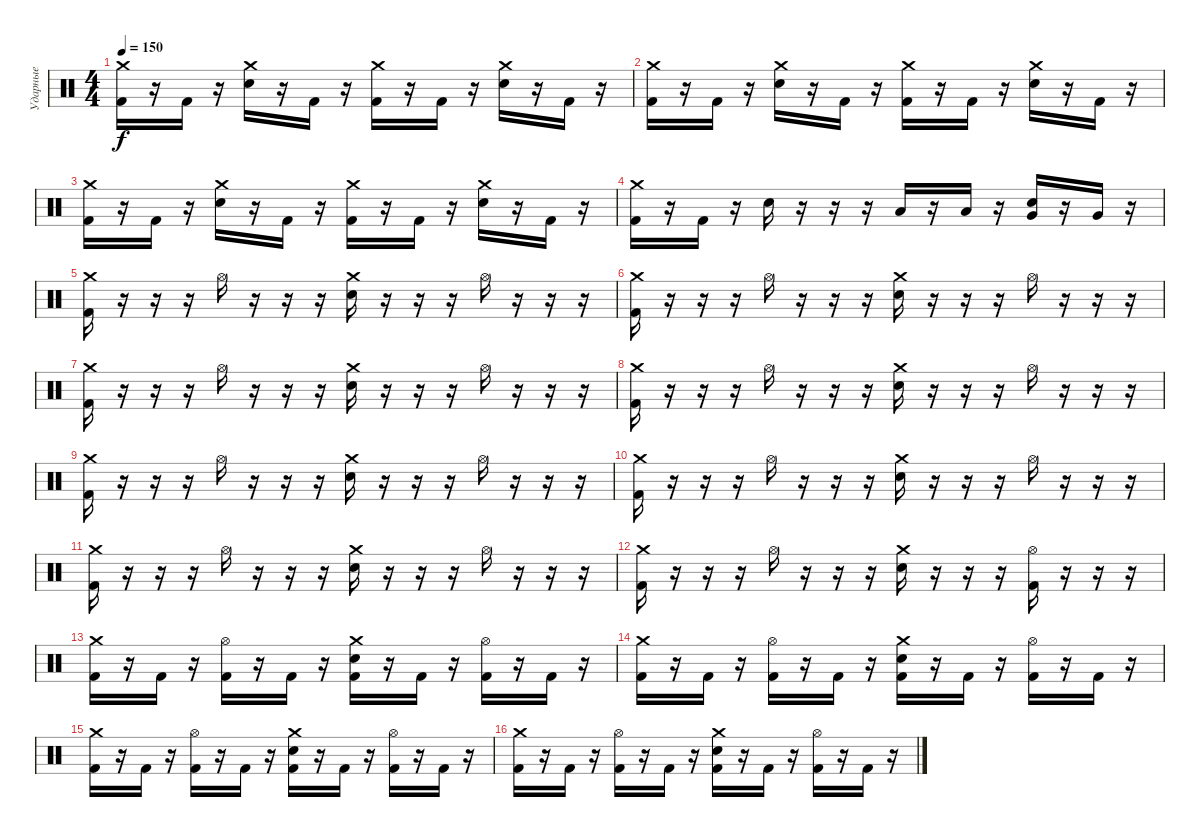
\track ("Ударные" "Ударные") {instrument percussion}
\staff {score}
\articulation defaults
\ts (4 4)
\tempo 150
\clef neutral
\ks c
("Crash medium (hit)" "Kick (hit) 2").16{dy f} r.16 "Kick (hit) 2".16 r.16 ("Crash medium (hit)" "Electric Snare (hit)").16 r.16 "Kick (hit) 2".16 r.16 ("Crash medium (hit)" "Kick (hit) 2").16 r.16 "Kick (hit) 2".16 r.16 ("Crash medium (hit)" "Electric Snare (hit)").16 r.16 "Kick (hit) 2".16 r.16 |
("Crash medium (hit)" "Kick (hit) 2").16 r.16 "Kick (hit) 2".16 r.16 ("Crash medium (hit)" "Electric Snare (hit)").16 r.16 "Kick (hit) 2".16 r.16 ("Crash medium (hit)" "Kick (hit) 2").16 r.16 "Kick (hit) 2".16 r.16 ("Crash medium (hit)" "Electric Snare (hit)").16 r.16 "Kick (hit) 2".16 r.16 |
("Crash medium (hit)" "Kick (hit) 2").16 r.16 "Kick (hit) 2".16 r.16 ("Crash medium (hit)" "Electric Snare (hit)").16 r.16 "Kick (hit) 2".16 r.16 ("Crash medium (hit)" "Kick (hit) 2").16 r.16 "Kick (hit) 2".16 r.16 ("Crash medium (hit)" "Electric Snare (hit)").16 r.16 "Kick (hit) 2".16 r.16 |
("Crash medium (hit)" "Kick (hit) 2").16 r.16 "Kick (hit) 2".16 r.16 "Electric Snare (hit)".16 r.16 r.16 r.16 "Low Tom (hit)".16 r.16 "Low Tom (hit)".16 r.16 ("Very Low Tom (hit)" "Electric Snare (hit)").16 r.16 "Very Low Tom (hit)".16 r.16 |
("Crash medium (hit)" "Kick (hit) 2").16 r.16 r.16 r.16 "Hi-Hat (open)".16 r.16 r.16 r.16 ("Crash medium (hit)" "Electric Snare (hit)").16 r.16 r.16 r.16 "Hi-Hat (open)".16 r.16 r.16 r.16 |
("Crash medium (hit)" "Kick (hit) 2").16 r.16 r.16 r.16 "Hi-Hat (open)".16 r.16 r.16 r.16 ("Crash medium (hit)" "Electric Snare (hit)").16 r.16 r.16 r.16 "Hi-Hat (open)".16 r.16 r.16 r.16 |
("Crash medium (hit)" "Kick (hit) 2").16 r.16 r.16 r.16 "Hi-Hat (open)".16 r.16 r.16 r.16 ("Crash medium (hit)" "Electric Snare (hit)").16 r.16 r.16 r.16 "Hi-Hat (open)".16 r.16 r.16 r.16 |
("Crash medium (hit)" "Kick (hit) 2").16 r.16 r.16 r.16 "Hi-Hat (open)".16 r.16 r.16 r.16 ("Crash medium (hit)" "Electric Snare (hit)").16 r.16 r.16 r.16 "Hi-Hat (open)".16 r.16 r.16 r.16 |
("Crash medium (hit)" "Kick (hit) 2").16 r.16 r.16 r.16 "Hi-Hat (open)".16 r.16 r.16 r.16 ("Crash medium (hit)" "Electric Snare (hit)").16 r.16 r.16 r.16 "Hi-Hat (open)".16 r.16 r.16 r.16 |
("Crash medium (hit)" "Kick (hit) 2").16 r.16 r.16 r.16 "Hi-Hat (open)".16 r.16 r.16 r.16 ("Crash medium (hit)" "Electric Snare (hit)").16 r.16 r.16 r.16 "Hi-Hat (open)".16 r.16 r.16 r.16 |
("Crash medium (hit)" "Kick (hit) 2").16 r.16 r.16 r.16 "Hi-Hat (open)".16 r.16 r.16 r.16 ("Crash medium (hit)" "Electric Snare (hit)").16 r.16 r.16 r.16 "Hi-Hat (open)".16 r.16 r.16 r.16 |
("Crash medium (hit)" "Kick (hit) 2").16 r.16 r.16 r.16 "Hi-Hat (open)".16 r.16 r.16 r.16 ("Crash medium (hit)" "Electric Snare (hit)").16 r.16 r.16 r.16 ("Hi-Hat (open)" "Kick (hit) 2").16 r.16 r.16 r.16 |
("Crash medium (hit)" "Kick (hit) 2").16 r.16 "Kick (hit) 2".16 r.16 ("Hi-Hat (open)" "Kick (hit) 2").16 r.16 "Kick (hit) 2".16 r.16 ("Crash medium (hit)" "Electric Snare (hit)" "Kick (hit) 2").16 r.16 "Kick (hit) 2".16 r.16 ("Hi-Hat (open)" "Kick (hit) 2").16 r.16 "Kick (hit) 2".16 r.16 |
("Crash medium (hit)" "Kick (hit) 2").16 r.16 "Kick (hit) 2".16 r.16 ("Hi-Hat (open)" "Kick (hit) 2").16 r.16 "Kick (hit) 2".16 r.16 ("Crash medium (hit)" "Electric Snare (hit)" "Kick (hit) 2").16 r.16 "Kick (hit) 2".16 r.16 ("Hi-Hat (open)" "Kick (hit) 2").16 r.16 "Kick (hit) 2".16 r.16 |
("Crash medium (hit)" "Kick (hit) 2").16 r.16 "Kick (hit) 2".16 r.16 ("Hi-Hat (open)" "Kick (hit) 2").16 r.16 "Kick (hit) 2".16 r.16 ("Crash medium (hit)" "Electric Snare (hit)" "Kick (hit) 2").16 r.16 "Kick (hit) 2".16 r.16 ("Hi-Hat (open)" "Kick (hit) 2").16 r.16 "Kick (hit) 2".16 r.16 |
("Crash medium (hit)" "Kick (hit) 2").16 r.16 "Kick (hit) 2".16 r.16 ("Hi-Hat (open)" "Kick (hit) 2").16 r.16 "Kick (hit) 2".16 r.16 ("Crash medium (hit)" "Electric Snare (hit)" "Kick (hit) 2").16 r.16 "Kick (hit) 2".16 r.16 ("Hi-Hat (open)" "Kick (hit) 2").16 r.16 "Kick (hit) 2".16 r.16
